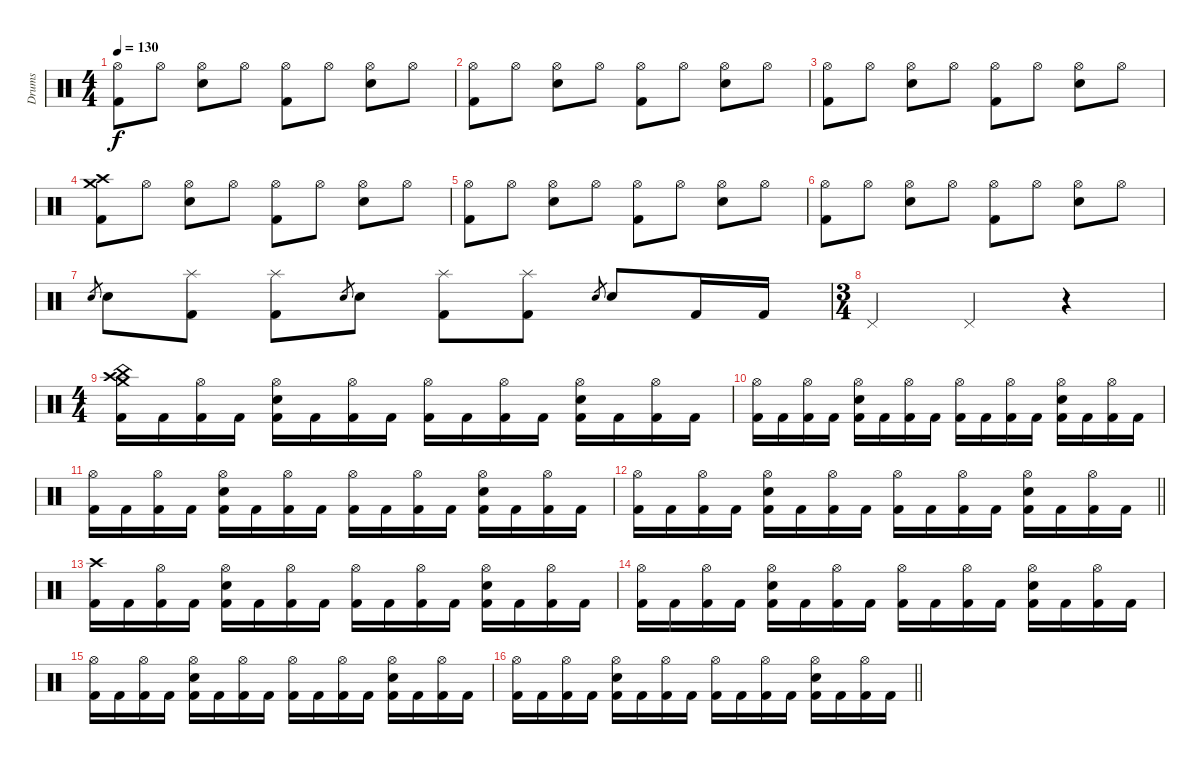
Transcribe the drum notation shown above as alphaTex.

\track ("Drums" "Drums") {instrument percussion}
\staff {score}
\articulation defaults
\ts (4 4)
\tempo 130
\clef neutral
\ks c
("Hi-Hat (open)" "Kick (hit) 2").8{dy f} "Hi-Hat (open)".8 ("Hi-Hat (open)" "Snare (hit) 2").8 "Hi-Hat (open)".8 ("Hi-Hat (open)" "Kick (hit) 2").8 "Hi-Hat (open)".8 ("Hi-Hat (open)" "Snare (hit) 2").8 "Hi-Hat (open)".8 |
("Hi-Hat (open)" "Kick (hit) 2").8 "Hi-Hat (open)".8 ("Hi-Hat (open)" "Snare (hit) 2").8 "Hi-Hat (open)".8 ("Hi-Hat (open)" "Kick (hit) 2").8 "Hi-Hat (open)".8 ("Hi-Hat (open)" "Snare (hit) 2").8 "Hi-Hat (open)".8 |
("Hi-Hat (open)" "Kick (hit) 2").8 "Hi-Hat (open)".8 ("Hi-Hat (open)" "Snare (hit) 2").8 "Hi-Hat (open)".8 ("Hi-Hat (open)" "Kick (hit) 2").8 "Hi-Hat (open)".8 ("Hi-Hat (open)" "Snare (hit) 2").8 "Hi-Hat (open)".8 |
("Crash medium (hit)" "Crash high (hit)" "Kick (hit) 2").8 "Hi-Hat (open)".8 ("Hi-Hat (open)" "Snare (hit) 2").8 "Hi-Hat (open)".8 ("Hi-Hat (open)" "Kick (hit) 2").8 "Hi-Hat (open)".8 ("Hi-Hat (open)" "Snare (hit) 2").8 "Hi-Hat (open)".8 |
("Hi-Hat (open)" "Kick (hit) 2").8 "Hi-Hat (open)".8 ("Hi-Hat (open)" "Snare (hit) 2").8 "Hi-Hat (open)".8 ("Hi-Hat (open)" "Kick (hit) 2").8 "Hi-Hat (open)".8 ("Hi-Hat (open)" "Snare (hit) 2").8 "Hi-Hat (open)".8 |
("Hi-Hat (open)" "Kick (hit) 2").8 "Hi-Hat (open)".8 ("Hi-Hat (open)" "Snare (hit) 2").8 "Hi-Hat (open)".8 ("Hi-Hat (open)" "Kick (hit) 2").8 "Hi-Hat (open)".8 ("Hi-Hat (open)" "Snare (hit) 2").8 "Hi-Hat (open)".8 |
"Snare (hit) 2".8{gr} "Snare (hit) 2".8 ("Splash (hit)" "Kick (hit) 2").8 ("Splash (hit)" "Kick (hit) 2").8 "Snare (hit) 2".8{gr} "Snare (hit) 2".8 ("Splash (hit)" "Kick (hit) 2").8 ("Splash (hit)" "Kick (hit) 2").8 "Snare (hit) 2".8{gr} "Snare (hit) 2".8 "Kick (hit) 2".16 "Kick (hit) 2".16 |
\ts (3 4)
"Pedal Hi-Hat (hit)".4 "Pedal Hi-Hat (hit)".4 r.4 |
\ts (4 4)
("Crash medium (hit)" "Crash high (hit)" "China (hit)" "Kick (hit) 2").16 "Kick (hit) 2".16 ("Hi-Hat (open)" "Kick (hit) 2").16 "Kick (hit) 2".16 ("Hi-Hat (open)" "Snare (hit) 2" "Kick (hit) 2").16 "Kick (hit) 2".16 ("Hi-Hat (open)" "Kick (hit) 2").16 "Kick (hit) 2".16 ("Hi-Hat (open)" "Kick (hit) 2").16 "Kick (hit) 2".16 ("Hi-Hat (open)" "Kick (hit) 2").16 "Kick (hit) 2".16 ("Hi-Hat (open)" "Snare (hit) 2" "Kick (hit) 2").16 "Kick (hit) 2".16 ("Hi-Hat (open)" "Kick (hit) 2").16 "Kick (hit) 2".16 |
("Hi-Hat (open)" "Kick (hit) 2").16 "Kick (hit) 2".16 ("Hi-Hat (open)" "Kick (hit) 2").16 "Kick (hit) 2".16 ("Hi-Hat (open)" "Snare (hit) 2" "Kick (hit) 2").16 "Kick (hit) 2".16 ("Hi-Hat (open)" "Kick (hit) 2").16 "Kick (hit) 2".16 ("Hi-Hat (open)" "Kick (hit) 2").16 "Kick (hit) 2".16 ("Hi-Hat (open)" "Kick (hit) 2").16 "Kick (hit) 2".16 ("Hi-Hat (open)" "Snare (hit) 2" "Kick (hit) 2").16 "Kick (hit) 2".16 ("Hi-Hat (open)" "Kick (hit) 2").16 "Kick (hit) 2".16 |
("Hi-Hat (open)" "Kick (hit) 2").16 "Kick (hit) 2".16 ("Hi-Hat (open)" "Kick (hit) 2").16 "Kick (hit) 2".16 ("Hi-Hat (open)" "Snare (hit) 2" "Kick (hit) 2").16 "Kick (hit) 2".16 ("Hi-Hat (open)" "Kick (hit) 2").16 "Kick (hit) 2".16 ("Hi-Hat (open)" "Kick (hit) 2").16 "Kick (hit) 2".16 ("Hi-Hat (open)" "Kick (hit) 2").16 "Kick (hit) 2".16 ("Hi-Hat (open)" "Snare (hit) 2" "Kick (hit) 2").16 "Kick (hit) 2".16 ("Hi-Hat (open)" "Kick (hit) 2").16 "Kick (hit) 2".16 |
\barLineRight lightlight
("Hi-Hat (open)" "Kick (hit) 2").16 "Kick (hit) 2".16 ("Hi-Hat (open)" "Kick (hit) 2").16 "Kick (hit) 2".16 ("Hi-Hat (open)" "Snare (hit) 2" "Kick (hit) 2").16 "Kick (hit) 2".16 ("Hi-Hat (open)" "Kick (hit) 2").16 "Kick (hit) 2".16 ("Hi-Hat (open)" "Kick (hit) 2").16 "Kick (hit) 2".16 ("Hi-Hat (open)" "Kick (hit) 2").16 "Kick (hit) 2".16 ("Hi-Hat (open)" "Snare (hit) 2" "Kick (hit) 2").16 "Kick (hit) 2".16 ("Hi-Hat (open)" "Kick (hit) 2").16 "Kick (hit) 2".16 |
("Crash high (hit)" "Kick (hit) 2").16 "Kick (hit) 2".16 ("Hi-Hat (open)" "Kick (hit) 2").16 "Kick (hit) 2".16 ("Hi-Hat (open)" "Snare (hit) 2" "Kick (hit) 2").16 "Kick (hit) 2".16 ("Hi-Hat (open)" "Kick (hit) 2").16 "Kick (hit) 2".16 ("Hi-Hat (open)" "Kick (hit) 2").16 "Kick (hit) 2".16 ("Hi-Hat (open)" "Kick (hit) 2").16 "Kick (hit) 2".16 ("Hi-Hat (open)" "Snare (hit) 2" "Kick (hit) 2").16 "Kick (hit) 2".16 ("Hi-Hat (open)" "Kick (hit) 2").16 "Kick (hit) 2".16 |
("Hi-Hat (open)" "Kick (hit) 2").16 "Kick (hit) 2".16 ("Hi-Hat (open)" "Kick (hit) 2").16 "Kick (hit) 2".16 ("Hi-Hat (open)" "Snare (hit) 2" "Kick (hit) 2").16 "Kick (hit) 2".16 ("Hi-Hat (open)" "Kick (hit) 2").16 "Kick (hit) 2".16 ("Hi-Hat (open)" "Kick (hit) 2").16 "Kick (hit) 2".16 ("Hi-Hat (open)" "Kick (hit) 2").16 "Kick (hit) 2".16 ("Hi-Hat (open)" "Snare (hit) 2" "Kick (hit) 2").16 "Kick (hit) 2".16 ("Hi-Hat (open)" "Kick (hit) 2").16 "Kick (hit) 2".16 |
("Hi-Hat (open)" "Kick (hit) 2").16 "Kick (hit) 2".16 ("Hi-Hat (open)" "Kick (hit) 2").16 "Kick (hit) 2".16 ("Hi-Hat (open)" "Snare (hit) 2" "Kick (hit) 2").16 "Kick (hit) 2".16 ("Hi-Hat (open)" "Kick (hit) 2").16 "Kick (hit) 2".16 ("Hi-Hat (open)" "Kick (hit) 2").16 "Kick (hit) 2".16 ("Hi-Hat (open)" "Kick (hit) 2").16 "Kick (hit) 2".16 ("Hi-Hat (open)" "Snare (hit) 2" "Kick (hit) 2").16 "Kick (hit) 2".16 ("Hi-Hat (open)" "Kick (hit) 2").16 "Kick (hit) 2".16 |
\barLineRight lightlight
("Hi-Hat (open)" "Kick (hit) 2").16 "Kick (hit) 2".16 ("Hi-Hat (open)" "Kick (hit) 2").16 "Kick (hit) 2".16 ("Hi-Hat (open)" "Snare (hit) 2" "Kick (hit) 2").16 "Kick (hit) 2".16 ("Hi-Hat (open)" "Kick (hit) 2").16 "Kick (hit) 2".16 ("Hi-Hat (open)" "Kick (hit) 2").16 "Kick (hit) 2".16 ("Hi-Hat (open)" "Kick (hit) 2").16 "Kick (hit) 2".16 ("Hi-Hat (open)" "Snare (hit) 2" "Kick (hit) 2").16 "Kick (hit) 2".16 ("Hi-Hat (open)" "Kick (hit) 2").16 "Kick (hit) 2".16
